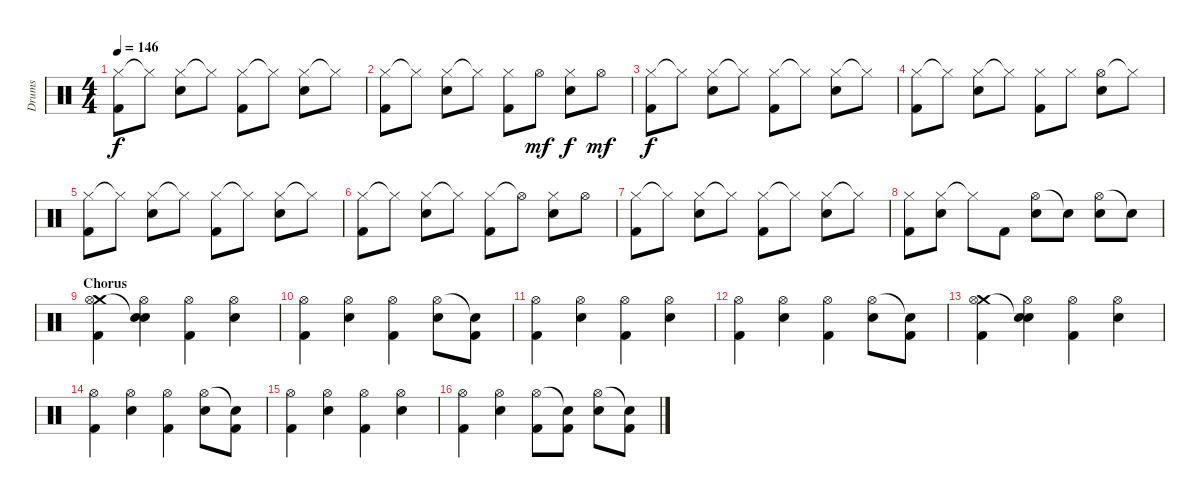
\track ("Drums" "Drums") {instrument percussion}
\staff {score}
\articulation defaults
\ts (4 4)
\tempo 146
\clef neutral
\ks c
("Hi-Hat (closed)" "Kick (hit) 2").8{dy f} "Hi-Hat (closed)"{t}.8 ("Hi-Hat (closed)" "Electric Snare (hit)").8 "Hi-Hat (closed)"{t}.8 ("Hi-Hat (closed)" "Kick (hit) 2").8 "Hi-Hat (closed)"{t}.8 ("Hi-Hat (closed)" "Electric Snare (hit)").8 "Hi-Hat (closed)"{t}.8 |
("Hi-Hat (closed)" "Kick (hit) 2").8 "Hi-Hat (closed)"{t}.8 ("Hi-Hat (closed)" "Electric Snare (hit)").8 "Hi-Hat (closed)"{t}.8 ("Hi-Hat (closed)" "Kick (hit) 2").8 "Hi-Hat (open)".8{dy mf} ("Hi-Hat (closed)" "Electric Snare (hit)").8{dy f} "Hi-Hat (open)".8{dy mf} |
("Hi-Hat (closed)" "Kick (hit) 2").8{dy f} "Hi-Hat (closed)"{t}.8 ("Hi-Hat (closed)" "Electric Snare (hit)").8 "Hi-Hat (closed)"{t}.8 ("Hi-Hat (closed)" "Kick (hit) 2").8 "Hi-Hat (closed)"{t}.8 ("Hi-Hat (closed)" "Electric Snare (hit)").8 "Hi-Hat (closed)"{t}.8 |
("Hi-Hat (closed)" "Kick (hit) 2").8 "Hi-Hat (closed)"{t}.8 ("Hi-Hat (closed)" "Electric Snare (hit)").8 "Hi-Hat (closed)"{t}.8 ("Hi-Hat (closed)" "Kick (hit) 2").8 "Hi-Hat (closed)".8 ("Hi-Hat (open)" "Electric Snare (hit)").8 "Hi-Hat (closed)"{t}.8 |
("Hi-Hat (closed)" "Kick (hit) 2").8 "Hi-Hat (closed)"{t}.8 ("Hi-Hat (closed)" "Electric Snare (hit)").8 "Hi-Hat (closed)"{t}.8 ("Hi-Hat (closed)" "Kick (hit) 2").8 "Hi-Hat (closed)"{t}.8 ("Hi-Hat (closed)" "Electric Snare (hit)").8 "Hi-Hat (closed)"{t}.8 |
("Hi-Hat (closed)" "Kick (hit) 2").8 "Hi-Hat (closed)"{t}.8 ("Hi-Hat (closed)" "Electric Snare (hit)").8 "Hi-Hat (closed)"{t}.8 ("Hi-Hat (closed)" "Kick (hit) 2").8 "Hi-Hat (open)"{t}.8 ("Hi-Hat (closed)" "Electric Snare (hit)").8 "Hi-Hat (open)".8 |
("Hi-Hat (closed)" "Kick (hit) 2").8 "Hi-Hat (closed)"{t}.8 ("Hi-Hat (closed)" "Electric Snare (hit)").8 "Hi-Hat (closed)"{t}.8 ("Hi-Hat (closed)" "Kick (hit) 2").8 "Hi-Hat (closed)"{t}.8 ("Hi-Hat (closed)" "Electric Snare (hit)").8 "Hi-Hat (closed)"{t}.8 |
("Hi-Hat (closed)" "Kick (hit) 2").8 ("Hi-Hat (closed)" "Electric Snare (hit)").8 "Hi-Hat (closed)"{t}.8 "Kick (hit) 2".8 ("Hi-Hat (open)" "Electric Snare (hit)").8 "Snare (hit)"{t}.8 ("Hi-Hat (open)" "Electric Snare (hit)").8 "Snare (hit)"{t}.8 |
\section ("" "Chorus")
("Crash medium (hit)" "Hi-Hat (open)" "Kick (hit) 2").4 ("Snare (hit)"{t} "Hi-Hat (open)" "Electric Snare (hit)").4 ("Hi-Hat (open)" "Kick (hit) 2").4 ("Hi-Hat (open)" "Electric Snare (hit)").4 |
("Hi-Hat (open)" "Kick (hit) 2").4 ("Hi-Hat (open)" "Electric Snare (hit)").4 ("Hi-Hat (open)" "Kick (hit) 2").4 ("Hi-Hat (open)" "Electric Snare (hit)").8 ("Snare (hit)"{t} "Kick (hit) 2").8 |
("Hi-Hat (open)" "Kick (hit) 2").4 ("Hi-Hat (open)" "Electric Snare (hit)").4 ("Hi-Hat (open)" "Kick (hit) 2").4 ("Hi-Hat (open)" "Electric Snare (hit)").4 |
("Hi-Hat (open)" "Kick (hit) 2").4 ("Hi-Hat (open)" "Electric Snare (hit)").4 ("Hi-Hat (open)" "Kick (hit) 2").4 ("Hi-Hat (open)" "Electric Snare (hit)").8 ("Snare (hit)"{t} "Kick (hit) 2").8 |
("Crash medium (hit)" "Hi-Hat (open)" "Kick (hit) 2").4 ("Snare (hit)"{t} "Hi-Hat (open)" "Electric Snare (hit)").4 ("Hi-Hat (open)" "Kick (hit) 2").4 ("Hi-Hat (open)" "Electric Snare (hit)").4 |
("Hi-Hat (open)" "Kick (hit) 2").4 ("Hi-Hat (open)" "Electric Snare (hit)").4 ("Hi-Hat (open)" "Kick (hit) 2").4 ("Hi-Hat (open)" "Electric Snare (hit)").8 ("Snare (hit)"{t} "Kick (hit) 2").8 |
("Hi-Hat (open)" "Kick (hit) 2").4 ("Hi-Hat (open)" "Electric Snare (hit)").4 ("Hi-Hat (open)" "Kick (hit) 2").4 ("Hi-Hat (open)" "Electric Snare (hit)").4 |
("Hi-Hat (open)" "Kick (hit) 2").4 ("Hi-Hat (open)" "Electric Snare (hit)").4 ("Hi-Hat (open)" "Kick (hit) 2").8 ("Snare (hit)"{t} "Kick (hit) 2").8 ("Hi-Hat (open)" "Electric Snare (hit)").8 ("Snare (hit)"{t} "Kick (hit) 2").8
